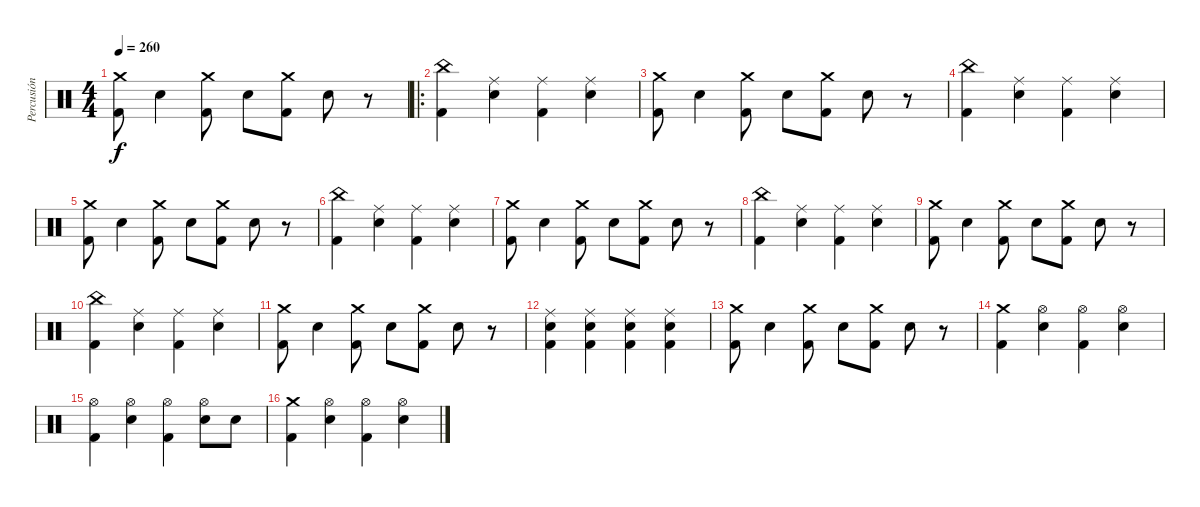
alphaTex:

\track ("Percusión" "Percusión") {instrument percussion}
\staff {score}
\articulation defaults
\ts (4 4)
\tempo 260
\clef neutral
\ks c
("Crash medium (hit)" "Kick (hit) 2").8{dy f} "Electric Snare (hit)".4 ("Crash medium (hit)" "Kick (hit) 2").8 "Electric Snare (hit)".8 ("Crash medium (hit)" "Kick (hit) 2").8 "Electric Snare (hit)".8 r.8 |
\ro
("China (hit)" "Kick (hit) 2").4 ("Ride (middle)" "Electric Snare (hit)").4 ("Ride (middle)" "Kick (hit) 2").4 ("Ride (middle)" "Electric Snare (hit)").4 |
("Crash medium (hit)" "Kick (hit) 2").8 "Electric Snare (hit)".4 ("Crash medium (hit)" "Kick (hit) 2").8 "Electric Snare (hit)".8 ("Crash medium (hit)" "Kick (hit) 2").8 "Electric Snare (hit)".8 r.8 |
("China (hit)" "Kick (hit) 2").4 ("Ride (middle)" "Electric Snare (hit)").4 ("Ride (middle)" "Kick (hit) 2").4 ("Ride (middle)" "Electric Snare (hit)").4 |
("Crash medium (hit)" "Kick (hit) 2").8 "Electric Snare (hit)".4 ("Crash medium (hit)" "Kick (hit) 2").8 "Electric Snare (hit)".8 ("Crash medium (hit)" "Kick (hit) 2").8 "Electric Snare (hit)".8 r.8 |
("China (hit)" "Kick (hit) 2").4 ("Ride (middle)" "Electric Snare (hit)").4 ("Ride (middle)" "Kick (hit) 2").4 ("Ride (middle)" "Electric Snare (hit)").4 |
("Crash medium (hit)" "Kick (hit) 2").8 "Electric Snare (hit)".4 ("Crash medium (hit)" "Kick (hit) 2").8 "Electric Snare (hit)".8 ("Crash medium (hit)" "Kick (hit) 2").8 "Electric Snare (hit)".8 r.8 |
("China (hit)" "Kick (hit) 2").4 ("Ride (middle)" "Electric Snare (hit)").4 ("Ride (middle)" "Kick (hit) 2").4 ("Ride (middle)" "Electric Snare (hit)").4 |
("Crash medium (hit)" "Kick (hit) 2").8 "Electric Snare (hit)".4 ("Crash medium (hit)" "Kick (hit) 2").8 "Electric Snare (hit)".8 ("Crash medium (hit)" "Kick (hit) 2").8 "Electric Snare (hit)".8 r.8 |
("China (hit)" "Kick (hit) 2").4 ("Ride (middle)" "Electric Snare (hit)").4 ("Ride (middle)" "Kick (hit) 2").4 ("Ride (middle)" "Electric Snare (hit)").4 |
("Crash medium (hit)" "Kick (hit) 2").8 "Electric Snare (hit)".4 ("Crash medium (hit)" "Kick (hit) 2").8 "Electric Snare (hit)".8 ("Crash medium (hit)" "Kick (hit) 2").8 "Electric Snare (hit)".8 r.8 |
("Ride (middle)" "Electric Snare (hit)" "Kick (hit) 2").4 ("Ride (middle)" "Electric Snare (hit)" "Kick (hit) 2").4 ("Ride (middle)" "Electric Snare (hit)" "Kick (hit) 2").4 ("Ride (middle)" "Electric Snare (hit)" "Kick (hit) 2").4 |
("Crash medium (hit)" "Kick (hit) 2").8 "Electric Snare (hit)".4 ("Crash medium (hit)" "Kick (hit) 2").8 "Electric Snare (hit)".8 ("Crash medium (hit)" "Kick (hit) 2").8 "Electric Snare (hit)".8 r.8 |
("Crash medium (hit)" "Kick (hit) 2").4 ("Hi-Hat (open)" "Electric Snare (hit)").4 ("Hi-Hat (open)" "Kick (hit) 2").4 ("Hi-Hat (open)" "Electric Snare (hit)").4 |
("Hi-Hat (open)" "Kick (hit) 2").4 ("Hi-Hat (open)" "Electric Snare (hit)").4 ("Hi-Hat (open)" "Kick (hit) 2").4 ("Hi-Hat (open)" "Electric Snare (hit)").8 "Electric Snare (hit)".8 |
("Crash medium (hit)" "Kick (hit) 2").4 ("Hi-Hat (open)" "Electric Snare (hit)").4 ("Hi-Hat (open)" "Kick (hit) 2").4 ("Hi-Hat (open)" "Electric Snare (hit)").4
